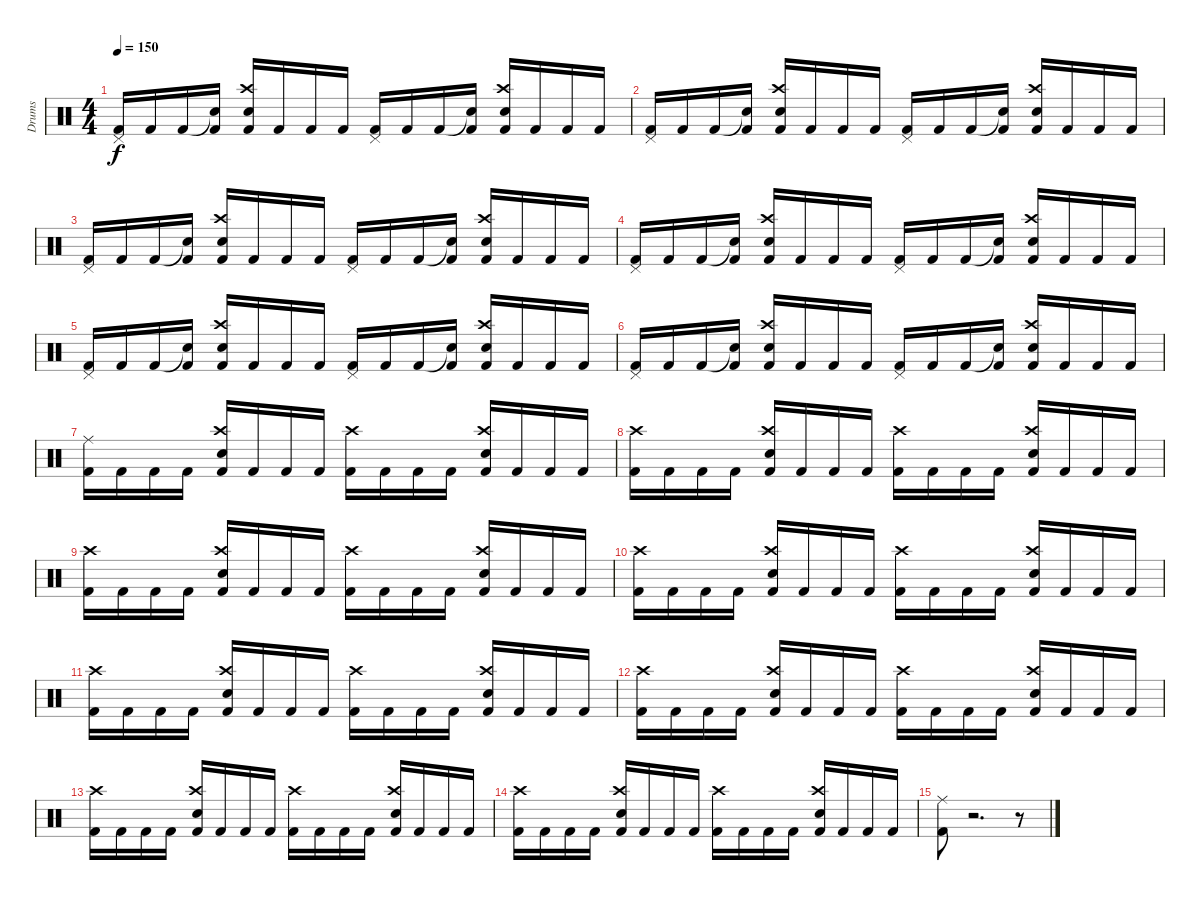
\track ("Drums" "Drums") {instrument percussion}
\staff {score}
\articulation defaults
\ts (4 4)
\tempo 150
\clef neutral
\ks c
("Pedal Hi-Hat (hit)" "Kick (hit) 2").16{dy f} "Kick (hit) 2".16 "Kick (hit) 2".16 ("Snare (hit)"{t} "Kick (hit) 2").16 ("Crash high (hit)" "Electric Snare (hit)" "Kick (hit) 2").16 "Kick (hit) 2".16 "Kick (hit) 2".16 "Kick (hit) 2".16 ("Pedal Hi-Hat (hit)" "Kick (hit) 2").16 "Kick (hit) 2".16 "Kick (hit) 2".16 ("Snare (hit)"{t} "Kick (hit) 2").16 ("Crash high (hit)" "Electric Snare (hit)" "Kick (hit) 2").16 "Kick (hit) 2".16 "Kick (hit) 2".16 "Kick (hit) 2".16 |
("Pedal Hi-Hat (hit)" "Kick (hit) 2").16 "Kick (hit) 2".16 "Kick (hit) 2".16 ("Snare (hit)"{t} "Kick (hit) 2").16 ("Crash high (hit)" "Electric Snare (hit)" "Kick (hit) 2").16 "Kick (hit) 2".16 "Kick (hit) 2".16 "Kick (hit) 2".16 ("Pedal Hi-Hat (hit)" "Kick (hit) 2").16 "Kick (hit) 2".16 "Kick (hit) 2".16 ("Snare (hit)"{t} "Kick (hit) 2").16 ("Crash high (hit)" "Electric Snare (hit)" "Kick (hit) 2").16 "Kick (hit) 2".16 "Kick (hit) 2".16 "Kick (hit) 2".16 |
("Pedal Hi-Hat (hit)" "Kick (hit) 2").16 "Kick (hit) 2".16 "Kick (hit) 2".16 ("Snare (hit)"{t} "Kick (hit) 2").16 ("Crash high (hit)" "Electric Snare (hit)" "Kick (hit) 2").16 "Kick (hit) 2".16 "Kick (hit) 2".16 "Kick (hit) 2".16 ("Pedal Hi-Hat (hit)" "Kick (hit) 2").16 "Kick (hit) 2".16 "Kick (hit) 2".16 ("Snare (hit)"{t} "Kick (hit) 2").16 ("Crash high (hit)" "Electric Snare (hit)" "Kick (hit) 2").16 "Kick (hit) 2".16 "Kick (hit) 2".16 "Kick (hit) 2".16 |
("Pedal Hi-Hat (hit)" "Kick (hit) 2").16 "Kick (hit) 2".16 "Kick (hit) 2".16 ("Snare (hit)"{t} "Kick (hit) 2").16 ("Crash high (hit)" "Electric Snare (hit)" "Kick (hit) 2").16 "Kick (hit) 2".16 "Kick (hit) 2".16 "Kick (hit) 2".16 ("Pedal Hi-Hat (hit)" "Kick (hit) 2").16 "Kick (hit) 2".16 "Kick (hit) 2".16 ("Snare (hit)"{t} "Kick (hit) 2").16 ("Crash high (hit)" "Electric Snare (hit)" "Kick (hit) 2").16 "Kick (hit) 2".16 "Kick (hit) 2".16 "Kick (hit) 2".16 |
("Pedal Hi-Hat (hit)" "Kick (hit) 2").16 "Kick (hit) 2".16 "Kick (hit) 2".16 ("Snare (hit)"{t} "Kick (hit) 2").16 ("Crash high (hit)" "Electric Snare (hit)" "Kick (hit) 2").16 "Kick (hit) 2".16 "Kick (hit) 2".16 "Kick (hit) 2".16 ("Pedal Hi-Hat (hit)" "Kick (hit) 2").16 "Kick (hit) 2".16 "Kick (hit) 2".16 ("Snare (hit)"{t} "Kick (hit) 2").16 ("Crash high (hit)" "Electric Snare (hit)" "Kick (hit) 2").16 "Kick (hit) 2".16 "Kick (hit) 2".16 "Kick (hit) 2".16 |
("Pedal Hi-Hat (hit)" "Kick (hit) 2").16 "Kick (hit) 2".16 "Kick (hit) 2".16 ("Snare (hit)"{t} "Kick (hit) 2").16 ("Crash high (hit)" "Electric Snare (hit)" "Kick (hit) 2").16 "Kick (hit) 2".16 "Kick (hit) 2".16 "Kick (hit) 2".16 ("Pedal Hi-Hat (hit)" "Kick (hit) 2").16 "Kick (hit) 2".16 "Kick (hit) 2".16 ("Snare (hit)"{t} "Kick (hit) 2").16 ("Crash high (hit)" "Electric Snare (hit)" "Kick (hit) 2").16 "Kick (hit) 2".16 "Kick (hit) 2".16 "Kick (hit) 2".16 |
("Ride (middle)" "Kick (hit) 2").16 "Kick (hit) 2".16 "Kick (hit) 2".16 "Kick (hit) 2".16 ("Crash high (hit)" "Electric Snare (hit)" "Kick (hit) 2").16 "Kick (hit) 2".16 "Kick (hit) 2".16 "Kick (hit) 2".16 ("Crash high (hit)" "Kick (hit) 2").16 "Kick (hit) 2".16 "Kick (hit) 2".16 "Kick (hit) 2".16 ("Crash high (hit)" "Electric Snare (hit)" "Kick (hit) 2").16 "Kick (hit) 2".16 "Kick (hit) 2".16 "Kick (hit) 2".16 |
("Crash high (hit)" "Kick (hit) 2").16 "Kick (hit) 2".16 "Kick (hit) 2".16 "Kick (hit) 2".16 ("Crash high (hit)" "Electric Snare (hit)" "Kick (hit) 2").16 "Kick (hit) 2".16 "Kick (hit) 2".16 "Kick (hit) 2".16 ("Crash high (hit)" "Kick (hit) 2").16 "Kick (hit) 2".16 "Kick (hit) 2".16 "Kick (hit) 2".16 ("Crash high (hit)" "Electric Snare (hit)" "Kick (hit) 2").16 "Kick (hit) 2".16 "Kick (hit) 2".16 "Kick (hit) 2".16 |
("Crash high (hit)" "Kick (hit) 2").16 "Kick (hit) 2".16 "Kick (hit) 2".16 "Kick (hit) 2".16 ("Crash high (hit)" "Electric Snare (hit)" "Kick (hit) 2").16 "Kick (hit) 2".16 "Kick (hit) 2".16 "Kick (hit) 2".16 ("Crash high (hit)" "Kick (hit) 2").16 "Kick (hit) 2".16 "Kick (hit) 2".16 "Kick (hit) 2".16 ("Crash high (hit)" "Electric Snare (hit)" "Kick (hit) 2").16 "Kick (hit) 2".16 "Kick (hit) 2".16 "Kick (hit) 2".16 |
("Crash high (hit)" "Kick (hit) 2").16 "Kick (hit) 2".16 "Kick (hit) 2".16 "Kick (hit) 2".16 ("Crash high (hit)" "Electric Snare (hit)" "Kick (hit) 2").16 "Kick (hit) 2".16 "Kick (hit) 2".16 "Kick (hit) 2".16 ("Crash high (hit)" "Kick (hit) 2").16 "Kick (hit) 2".16 "Kick (hit) 2".16 "Kick (hit) 2".16 ("Crash high (hit)" "Electric Snare (hit)" "Kick (hit) 2").16 "Kick (hit) 2".16 "Kick (hit) 2".16 "Kick (hit) 2".16 |
("Crash high (hit)" "Kick (hit) 2").16 "Kick (hit) 2".16 "Kick (hit) 2".16 "Kick (hit) 2".16 ("Crash high (hit)" "Electric Snare (hit)" "Kick (hit) 2").16 "Kick (hit) 2".16 "Kick (hit) 2".16 "Kick (hit) 2".16 ("Crash high (hit)" "Kick (hit) 2").16 "Kick (hit) 2".16 "Kick (hit) 2".16 "Kick (hit) 2".16 ("Crash high (hit)" "Electric Snare (hit)" "Kick (hit) 2").16 "Kick (hit) 2".16 "Kick (hit) 2".16 "Kick (hit) 2".16 |
("Crash high (hit)" "Kick (hit) 2").16 "Kick (hit) 2".16 "Kick (hit) 2".16 "Kick (hit) 2".16 ("Crash high (hit)" "Electric Snare (hit)" "Kick (hit) 2").16 "Kick (hit) 2".16 "Kick (hit) 2".16 "Kick (hit) 2".16 ("Crash high (hit)" "Kick (hit) 2").16 "Kick (hit) 2".16 "Kick (hit) 2".16 "Kick (hit) 2".16 ("Crash high (hit)" "Electric Snare (hit)" "Kick (hit) 2").16 "Kick (hit) 2".16 "Kick (hit) 2".16 "Kick (hit) 2".16 |
("Crash high (hit)" "Kick (hit) 2").16 "Kick (hit) 2".16 "Kick (hit) 2".16 "Kick (hit) 2".16 ("Crash high (hit)" "Electric Snare (hit)" "Kick (hit) 2").16 "Kick (hit) 2".16 "Kick (hit) 2".16 "Kick (hit) 2".16 ("Crash high (hit)" "Kick (hit) 2").16 "Kick (hit) 2".16 "Kick (hit) 2".16 "Kick (hit) 2".16 ("Crash high (hit)" "Electric Snare (hit)" "Kick (hit) 2").16 "Kick (hit) 2".16 "Kick (hit) 2".16 "Kick (hit) 2".16 |
("Crash high (hit)" "Kick (hit) 2").16 "Kick (hit) 2".16 "Kick (hit) 2".16 "Kick (hit) 2".16 ("Crash high (hit)" "Electric Snare (hit)" "Kick (hit) 2").16 "Kick (hit) 2".16 "Kick (hit) 2".16 "Kick (hit) 2".16 ("Crash high (hit)" "Kick (hit) 2").16 "Kick (hit) 2".16 "Kick (hit) 2".16 "Kick (hit) 2".16 ("Crash high (hit)" "Electric Snare (hit)" "Kick (hit) 2").16 "Kick (hit) 2".16 "Kick (hit) 2".16 "Kick (hit) 2".16 |
("Ride (middle)" "Kick (hit) 2").8 r.2{d} r.8
